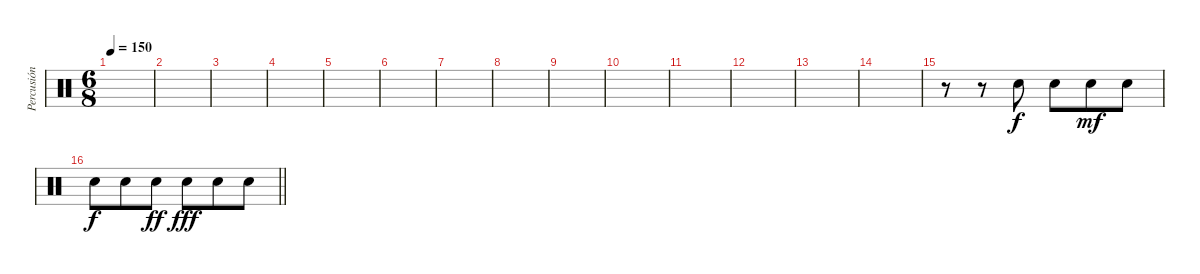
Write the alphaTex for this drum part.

\track ("Percusión" "Percusión") {instrument percussion}
\staff {score}
\articulation defaults
\ts (6 8)
\tempo 150
\clef neutral
\ks c
|
|
|
|
|
|
|
|
|
|
|
|
|
|
r.8 r.8 "Snare (hit) 2".8 "Snare (hit) 2".8 "Snare (hit) 2".8{dy mf} "Snare (hit) 2".8 |
\barLineRight lightlight "Snare (hit) 2".8{dy f} "Snare (hit) 2".8 "Snare (hit) 2".8{dy ff} "Snare (hit) 2".8{dy fff} "Snare (hit) 2".8 "Snare (hit) 2".8
